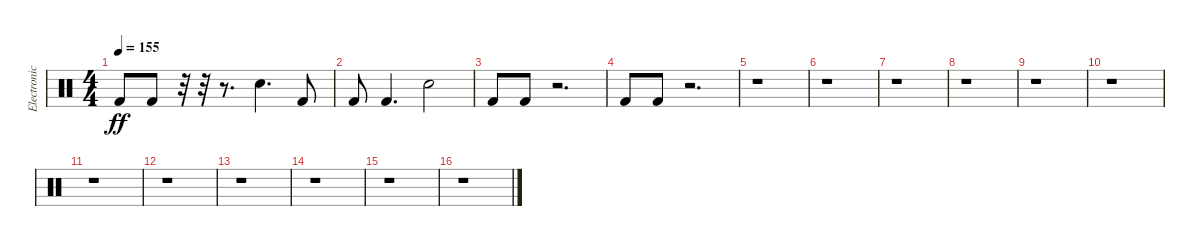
\track ("Electronic Drums" "Electronic") {instrument percussion}
\staff {score}
\articulation defaults
\ts (4 4)
\tempo 155
\clef neutral
\ks c "Kick (hit) 2".8{dy ff} "Kick (hit) 2".8
r.32 r.32 r.8{d} "Snare (hit) 2".4{d} "Kick (hit) 2".8 |
"Kick (hit) 2".8 "Kick (hit) 2".4{d} "Snare (hit) 2".2 |
"Kick (hit) 2".8 "Kick (hit) 2".8 r.2{d} |
"Kick (hit) 2".8 "Kick (hit) 2".8 r.2{d} |
r.1 |
r.1 |
r.1 |
r.1 |
r.1 |
r.1 |
r.1 |
r.1 |
r.1 |
r.1 |
r.1 |
r.1
